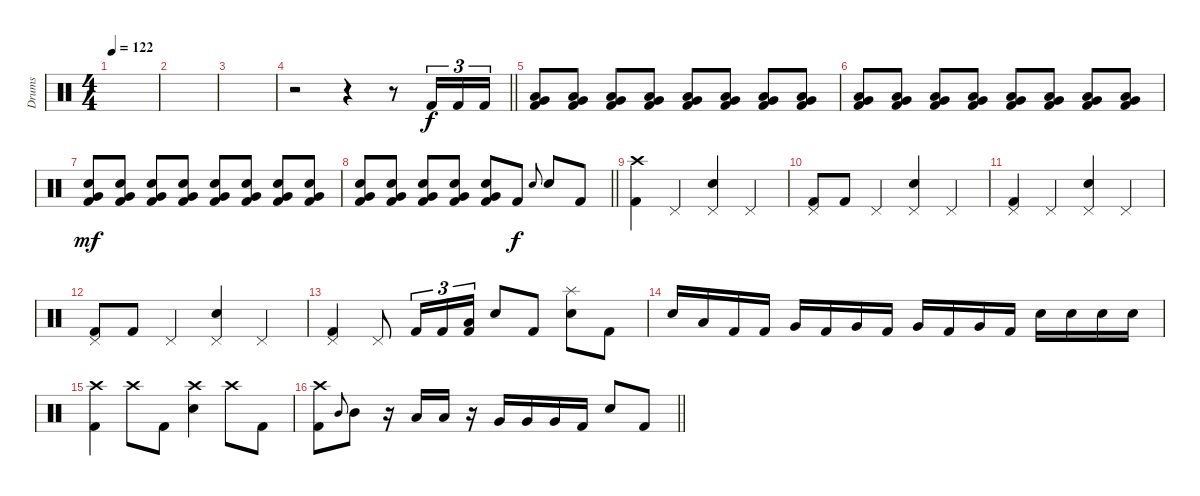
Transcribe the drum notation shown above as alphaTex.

\track ("Drums" "Drums") {instrument percussion}
\staff {score}
\articulation defaults
\ts (4 4)
\tempo 122
\clef neutral
\ks c
|
|
|
\barLineRight lightlight
r.2 r.4 r.8 "Kick (hit) 2".16{tu (3 2)} "Kick (hit) 2".16{tu (3 2)} "Kick (hit) 2".16{tu (3 2)} |
("Low Tom (hit)" "Very Low Tom (hit)" "Kick (hit) 2").8 ("Low Tom (hit)" "Very Low Tom (hit)" "Kick (hit) 2").8 ("Low Tom (hit)" "Very Low Tom (hit)" "Kick (hit) 2").8 ("Low Tom (hit)" "Very Low Tom (hit)" "Kick (hit) 2").8 ("Low Tom (hit)" "Very Low Tom (hit)" "Kick (hit) 2").8 ("Low Tom (hit)" "Very Low Tom (hit)" "Kick (hit) 2").8 ("Low Tom (hit)" "Very Low Tom (hit)" "Kick (hit) 2").8 ("Low Tom (hit)" "Very Low Tom (hit)" "Kick (hit) 2").8 |
("Low Tom (hit)" "Very Low Tom (hit)" "Kick (hit) 2").8 ("Low Tom (hit)" "Very Low Tom (hit)" "Kick (hit) 2").8 ("Low Tom (hit)" "Very Low Tom (hit)" "Kick (hit) 2").8 ("Low Tom (hit)" "Very Low Tom (hit)" "Kick (hit) 2").8 ("Low Tom (hit)" "Very Low Tom (hit)" "Kick (hit) 2").8 ("Low Tom (hit)" "Very Low Tom (hit)" "Kick (hit) 2").8 ("Low Tom (hit)" "Very Low Tom (hit)" "Kick (hit) 2").8 ("Low Tom (hit)" "Very Low Tom (hit)" "Kick (hit) 2").8 |
("Electric Snare (hit)" "Very Low Tom (hit)" "Kick (hit) 2").8{dy mf} ("Electric Snare (hit)" "Very Low Tom (hit)" "Kick (hit) 2").8 ("Electric Snare (hit)" "Very Low Tom (hit)" "Kick (hit) 2").8 ("Electric Snare (hit)" "Very Low Tom (hit)" "Kick (hit) 2").8 ("Electric Snare (hit)" "Very Low Tom (hit)" "Kick (hit) 2").8 ("Electric Snare (hit)" "Very Low Tom (hit)" "Kick (hit) 2").8 ("Electric Snare (hit)" "Very Low Tom (hit)" "Kick (hit) 2").8 ("Electric Snare (hit)" "Very Low Tom (hit)" "Kick (hit) 2").8 |
\barLineRight lightlight
("Electric Snare (hit)" "Very Low Tom (hit)" "Kick (hit) 2").8 ("Electric Snare (hit)" "Very Low Tom (hit)" "Kick (hit) 2").8 ("Electric Snare (hit)" "Very Low Tom (hit)" "Kick (hit) 2").8 ("Electric Snare (hit)" "Very Low Tom (hit)" "Kick (hit) 2").8 ("Electric Snare (hit)" "Very Low Tom (hit)" "Kick (hit) 2").8 "Kick (hit) 2".8{dy f} "Electric Snare (hit)".8{gr onbeat} "Electric Snare (hit)".8 "Kick (hit) 2".8 |
("Crash high (hit)" "Kick (hit) 2").4 "Pedal Hi-Hat (hit)".4 ("Pedal Hi-Hat (hit)" "Electric Snare (hit)").4 "Pedal Hi-Hat (hit)".4 |
("Pedal Hi-Hat (hit)" "Kick (hit) 2").8 "Kick (hit) 2".8 "Pedal Hi-Hat (hit)".4 ("Pedal Hi-Hat (hit)" "Electric Snare (hit)").4 "Pedal Hi-Hat (hit)".4 |
("Pedal Hi-Hat (hit)" "Kick (hit) 2").4 "Pedal Hi-Hat (hit)".4 ("Pedal Hi-Hat (hit)" "Electric Snare (hit)").4 "Pedal Hi-Hat (hit)".4 |
("Pedal Hi-Hat (hit)" "Kick (hit) 2").8 "Kick (hit) 2".8 "Pedal Hi-Hat (hit)".4 ("Pedal Hi-Hat (hit)" "Electric Snare (hit)").4 "Pedal Hi-Hat (hit)".4 |
("Pedal Hi-Hat (hit)" "Kick (hit) 2").4 "Pedal Hi-Hat (hit)".8 "Kick (hit) 2".16{tu (3 2)} "Kick (hit) 2".16{tu (3 2)} ("Low Tom (hit)" "Kick (hit) 2").16{tu (3 2)} "Electric Snare (hit)".8 "Kick (hit) 2".8 ("Splash (hit)" "Electric Snare (hit)").8 "Kick (hit) 2".8 |
"Electric Snare (hit)".16 "Low Tom (hit)".16 "Kick (hit) 2".16 "Kick (hit) 2".16 "Very Low Tom (hit)".16 "Kick (hit) 2".16 "Very Low Tom (hit)".16 "Kick (hit) 2".16 "Very Low Tom (hit)".16 "Kick (hit) 2".16 "Very Low Tom (hit)".16 "Kick (hit) 2".16 "Electric Snare (hit)".16 "Electric Snare (hit)".16 "Electric Snare (hit)".16 "Electric Snare (hit)".16 |
("Crash high (hit)" "Kick (hit) 2").4 "Crash high (hit)".8 "Kick (hit) 2".8 ("Crash high (hit)" "Electric Snare (hit)").4 "Crash high (hit)".8 "Kick (hit) 2".8 |
\barLineRight lightlight
("Crash high (hit)" "Kick (hit) 2").8 "Mid Tom (hit)".8{gr onbeat} "Mid Tom (hit)".8 r.16 "Low Tom (hit)".16 "Low Tom (hit)".16 r.16 "Very Low Tom (hit)".16 "Very Low Tom (hit)".16 "Very Low Tom (hit)".16 "Kick (hit) 2".16 "Electric Snare (hit)".8 "Kick (hit) 2".8
